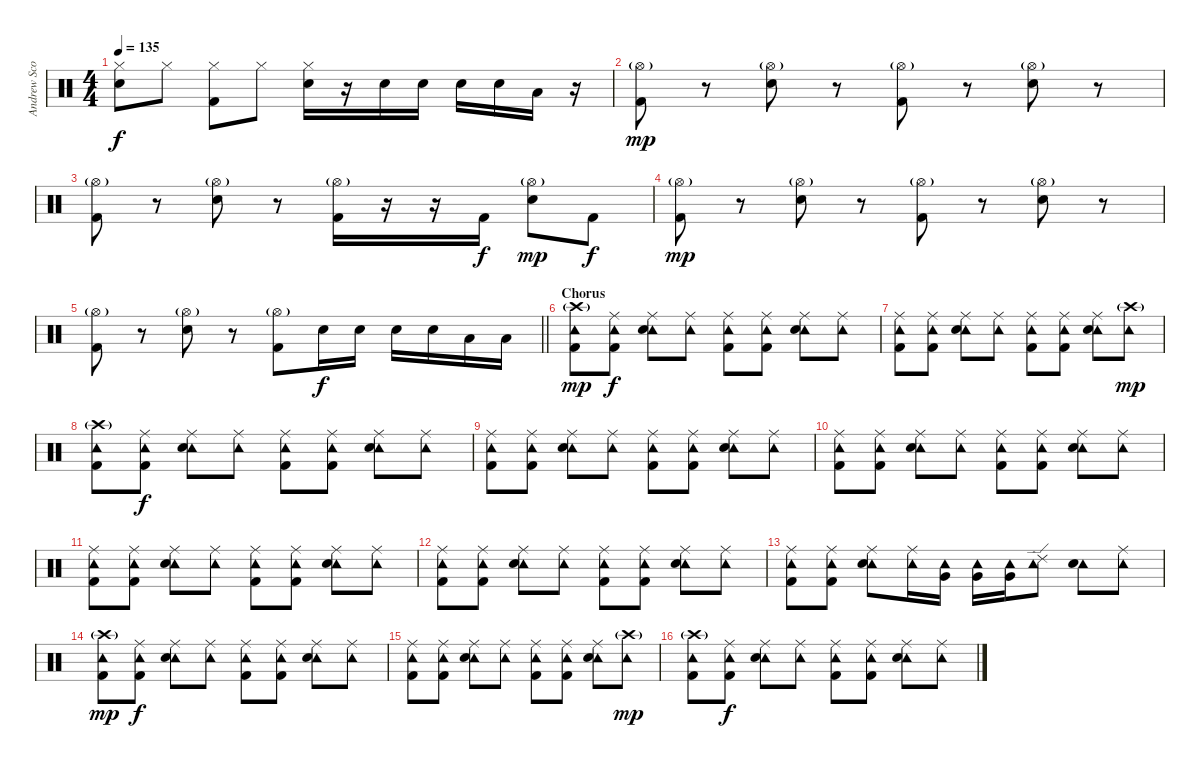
\track ("Andrew Scott" "Andrew Sco") {instrument percussion}
\staff {score}
\articulation defaults
\ts (4 4)
\tempo 135
\clef neutral
\ks c
("Hi-Hat (closed)" "Snare (hit) 2").8{dy f} "Hi-Hat (closed)".8 ("Hi-Hat (closed)" "Kick (hit) 2").8 "Hi-Hat (closed)".8 ("Hi-Hat (closed)" "Snare (hit) 2").16 r.16 "Snare (hit) 2".16 "Snare (hit) 2".16 "Snare (hit) 2".16 "Snare (hit) 2".16 "Low Tom (hit)".16 r.16 |
("Hi-Hat (open)"{g} "Kick (hit) 2").8{dy mp} r.8 ("Hi-Hat (open)"{g} "Snare (hit) 2").8 r.8 ("Hi-Hat (open)"{g} "Kick (hit) 2").8 r.8 ("Hi-Hat (open)"{g} "Snare (hit) 2").8 r.8 |
("Hi-Hat (open)"{g} "Kick (hit) 2").8 r.8 ("Hi-Hat (open)"{g} "Snare (hit) 2").8 r.8 ("Hi-Hat (open)"{g} "Kick (hit) 2").16 r.16 r.16 "Kick (hit) 2".16{dy f} ("Hi-Hat (open)"{g} "Snare (hit) 2").8{dy mp} "Kick (hit) 2".8{dy f} |
("Hi-Hat (open)"{g} "Kick (hit) 2").8{dy mp} r.8 ("Hi-Hat (open)"{g} "Snare (hit) 2").8 r.8 ("Hi-Hat (open)"{g} "Kick (hit) 2").8 r.8 ("Hi-Hat (open)"{g} "Snare (hit) 2").8 r.8 |
\barLineRight lightlight
("Hi-Hat (open)"{g} "Kick (hit) 2").8 r.8 ("Hi-Hat (open)"{g} "Snare (hit) 2").8 r.8 ("Hi-Hat (open)"{g} "Kick (hit) 2").8 "Snare (hit) 2".16{dy f} "Snare (hit) 2".16 "Snare (hit) 2".16 "Snare (hit) 2".16 "Low Tom (hit)".16 "Low Tom (hit)".16 |
\section ("" "Chorus")
("Crash high (hit)"{g} "Tambourine (hit)" "Kick (hit) 2").8{dy mp} ("Ride (middle)" "Tambourine (hit)" "Kick (hit) 2").8{dy f} ("Ride (middle)" "Tambourine (hit)" "Snare (hit) 2").8 ("Ride (middle)" "Tambourine (hit)").8 ("Ride (middle)" "Tambourine (hit)" "Kick (hit) 2").8 ("Ride (middle)" "Tambourine (hit)" "Kick (hit) 2").8 ("Ride (middle)" "Tambourine (hit)" "Snare (hit) 2").8 ("Ride (middle)" "Tambourine (hit)").8 |
("Ride (middle)" "Tambourine (hit)" "Kick (hit) 2").8 ("Ride (middle)" "Tambourine (hit)" "Kick (hit) 2").8 ("Ride (middle)" "Tambourine (hit)" "Snare (hit) 2").8 ("Ride (middle)" "Tambourine (hit)").8 ("Ride (middle)" "Tambourine (hit)" "Kick (hit) 2").8 ("Ride (middle)" "Tambourine (hit)" "Kick (hit) 2").8 ("Ride (middle)" "Tambourine (hit)" "Snare (hit) 2").8 ("Crash high (hit)"{g} "Tambourine (hit)").8{dy mp} |
("Crash high (hit)"{g} "Tambourine (hit)" "Kick (hit) 2").8 ("Ride (middle)" "Tambourine (hit)" "Kick (hit) 2").8{dy f} ("Ride (middle)" "Tambourine (hit)" "Snare (hit) 2").8 ("Ride (middle)" "Tambourine (hit)").8 ("Ride (middle)" "Tambourine (hit)" "Kick (hit) 2").8 ("Ride (middle)" "Tambourine (hit)" "Kick (hit) 2").8 ("Ride (middle)" "Tambourine (hit)" "Snare (hit) 2").8 ("Ride (middle)" "Tambourine (hit)").8 |
("Ride (middle)" "Tambourine (hit)" "Kick (hit) 2").8 ("Ride (middle)" "Tambourine (hit)" "Kick (hit) 2").8 ("Ride (middle)" "Tambourine (hit)" "Snare (hit) 2").8 ("Ride (middle)" "Tambourine (hit)").8 ("Ride (middle)" "Tambourine (hit)" "Kick (hit) 2").8 ("Ride (middle)" "Tambourine (hit)" "Kick (hit) 2").8 ("Ride (middle)" "Tambourine (hit)" "Snare (hit) 2").8 ("Ride (middle)" "Tambourine (hit)").8 |
("Ride (middle)" "Tambourine (hit)" "Kick (hit) 2").8 ("Ride (middle)" "Tambourine (hit)" "Kick (hit) 2").8 ("Ride (middle)" "Tambourine (hit)" "Snare (hit) 2").8 ("Ride (middle)" "Tambourine (hit)").8 ("Ride (middle)" "Tambourine (hit)" "Kick (hit) 2").8 ("Ride (middle)" "Tambourine (hit)" "Kick (hit) 2").8 ("Ride (middle)" "Tambourine (hit)" "Snare (hit) 2").8 ("Ride (middle)" "Tambourine (hit)").8 |
("Ride (middle)" "Tambourine (hit)" "Kick (hit) 2").8 ("Ride (middle)" "Tambourine (hit)" "Kick (hit) 2").8 ("Ride (middle)" "Tambourine (hit)" "Snare (hit) 2").8 ("Ride (middle)" "Tambourine (hit)").8 ("Ride (middle)" "Tambourine (hit)" "Kick (hit) 2").8 ("Ride (middle)" "Tambourine (hit)" "Kick (hit) 2").8 ("Ride (middle)" "Tambourine (hit)" "Snare (hit) 2").8 ("Ride (middle)" "Tambourine (hit)").8 |
("Ride (middle)" "Tambourine (hit)" "Kick (hit) 2").8 ("Ride (middle)" "Tambourine (hit)" "Kick (hit) 2").8 ("Ride (middle)" "Tambourine (hit)" "Snare (hit) 2").8 ("Ride (middle)" "Tambourine (hit)").8 ("Ride (middle)" "Tambourine (hit)" "Kick (hit) 2").8 ("Ride (middle)" "Tambourine (hit)" "Kick (hit) 2").8 ("Ride (middle)" "Tambourine (hit)" "Snare (hit) 2").8 ("Ride (middle)" "Tambourine (hit)").8 |
("Ride (middle)" "Tambourine (hit)" "Kick (hit) 2").8 ("Ride (middle)" "Tambourine (hit)" "Kick (hit) 2").8 ("Ride (middle)" "Tambourine (hit)" "Snare (hit) 2").8 ("Ride (middle)" "Tambourine (hit)").16 ("Tambourine (hit)" "Very Low Tom (hit)").16 ("Tambourine (hit)" "Very Low Tom (hit)").16 ("Tambourine (hit)" "Very Low Tom (hit)").16 ("Ride (edge) 2" "Tambourine (hit)").8 ("Tambourine (hit)" "Snare (hit) 2").8 ("Ride (middle)" "Tambourine (hit)").8 |
("Crash high (hit)"{g} "Tambourine (hit)" "Kick (hit) 2").8{dy mp} ("Ride (middle)" "Tambourine (hit)" "Kick (hit) 2").8{dy f} ("Ride (middle)" "Tambourine (hit)" "Snare (hit) 2").8 ("Ride (middle)" "Tambourine (hit)").8 ("Ride (middle)" "Tambourine (hit)" "Kick (hit) 2").8 ("Ride (middle)" "Tambourine (hit)" "Kick (hit) 2").8 ("Ride (middle)" "Tambourine (hit)" "Snare (hit) 2").8 ("Ride (middle)" "Tambourine (hit)").8 |
("Ride (middle)" "Tambourine (hit)" "Kick (hit) 2").8 ("Ride (middle)" "Tambourine (hit)" "Kick (hit) 2").8 ("Ride (middle)" "Tambourine (hit)" "Snare (hit) 2").8 ("Ride (middle)" "Tambourine (hit)").8 ("Ride (middle)" "Tambourine (hit)" "Kick (hit) 2").8 ("Ride (middle)" "Tambourine (hit)" "Kick (hit) 2").8 ("Ride (middle)" "Tambourine (hit)" "Snare (hit) 2").8 ("Crash high (hit)"{g} "Tambourine (hit)").8{dy mp} |
("Crash high (hit)"{g} "Tambourine (hit)" "Kick (hit) 2").8 ("Ride (middle)" "Tambourine (hit)" "Kick (hit) 2").8{dy f} ("Ride (middle)" "Tambourine (hit)" "Snare (hit) 2").8 ("Ride (middle)" "Tambourine (hit)").8 ("Ride (middle)" "Tambourine (hit)" "Kick (hit) 2").8 ("Ride (middle)" "Tambourine (hit)" "Kick (hit) 2").8 ("Ride (middle)" "Tambourine (hit)" "Snare (hit) 2").8 ("Ride (middle)" "Tambourine (hit)").8
